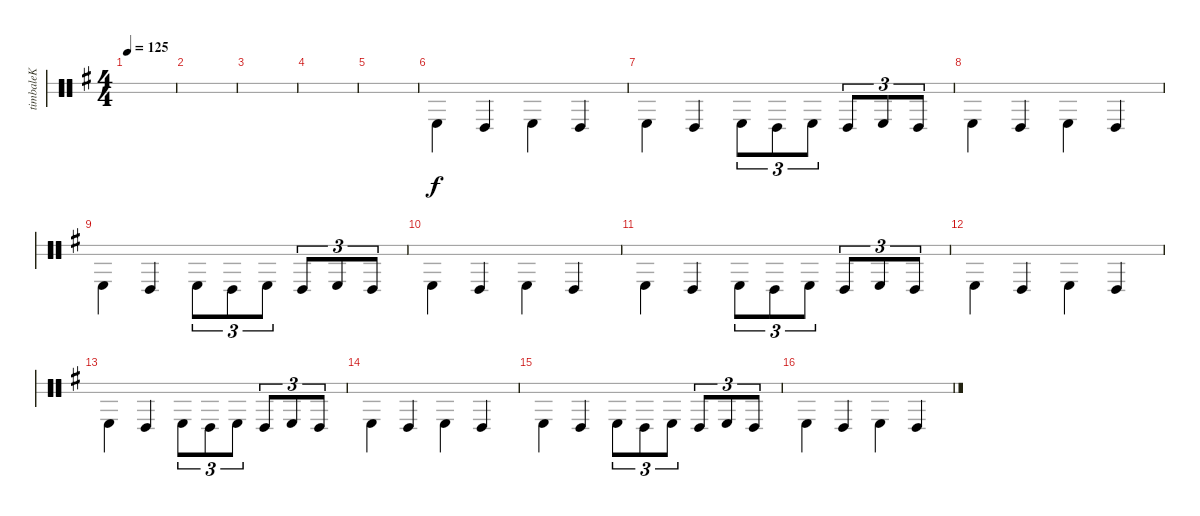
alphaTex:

\defaultSystemsLayout 4
\bracketExtendMode groupsimilarinstruments
\otherSystemsTrackNameOrientation horizontal
\track ("Timbale" "timbaleK") {instrument percussion}
\staff {score 2}
\articulation defaults
\ts (4 4)
\tempo 125
\clef neutral
\scale
0.474178
\ks g
|
\scale
0.262911 |
|
|
|
\scale
0.262911 "Timbale high (hit)"{acc forcenatural}.4{beam Down} "Timbale low (hit)"{acc forcenatural}.4{beam Up} "Timbale high (hit)"{acc forcenatural}.4{beam Down} "Timbale low (hit)"{acc forcenatural}.4{beam Up} |
\scale
0.333333 "Timbale high (hit)"{acc forcenatural}.4{beam Down} "Timbale low (hit)"{acc forcenatural}.4{beam Up} "Timbale high (hit)"{acc forcenatural}.8{tu (3 2) beam Down} "Timbale low (hit)"{acc forcenatural}.8{tu (3 2) beam Down} "Timbale high (hit)"{acc forcenatural}.8{tu (3 2) beam Down} "Timbale low (hit)"{acc forcenatural}.8{tu (3 2) beam Up} "Timbale high (hit)"{acc forcenatural}.8{tu (3 2) beam Up} "Timbale low (hit)"{acc forcenatural}.8{tu (3 2) beam Up} |
\scale
0.333333 "Timbale high (hit)"{acc forcenatural}.4{beam Down} "Timbale low (hit)"{acc forcenatural}.4{beam Up} "Timbale high (hit)"{acc forcenatural}.4{beam Down} "Timbale low (hit)"{acc forcenatural}.4{beam Up} |
"Timbale high (hit)"{acc forcenatural}.4{beam Down} "Timbale low (hit)"{acc forcenatural}.4{beam Up} "Timbale high (hit)"{acc forcenatural}.8{tu (3 2) beam Down} "Timbale low (hit)"{acc forcenatural}.8{tu (3 2) beam Down} "Timbale high (hit)"{acc forcenatural}.8{tu (3 2) beam Down} "Timbale low (hit)"{acc forcenatural}.8{tu (3 2) beam Up} "Timbale high (hit)"{acc forcenatural}.8{tu (3 2) beam Up} "Timbale low (hit)"{acc forcenatural}.8{tu (3 2) beam Up} |
\scale
0.333333 "Timbale high (hit)"{acc forcenatural}.4{beam Down} "Timbale low (hit)"{acc forcenatural}.4{beam Up} "Timbale high (hit)"{acc forcenatural}.4{beam Down} "Timbale low (hit)"{acc forcenatural}.4{beam Up} |
\scale
0.333333 "Timbale high (hit)"{acc forcenatural}.4{beam Down} "Timbale low (hit)"{acc forcenatural}.4{beam Up} "Timbale high (hit)"{acc forcenatural}.8{tu (3 2) beam Down} "Timbale low (hit)"{acc forcenatural}.8{tu (3 2) beam Down} "Timbale high (hit)"{acc forcenatural}.8{tu (3 2) beam Down} "Timbale low (hit)"{acc forcenatural}.8{tu (3 2) beam Up} "Timbale high (hit)"{acc forcenatural}.8{tu (3 2) beam Up} "Timbale low (hit)"{acc forcenatural}.8{tu (3 2) beam Up} |
\scale
0.333333 "Timbale high (hit)"{acc forcenatural}.4{beam Down} "Timbale low (hit)"{acc forcenatural}.4{beam Up} "Timbale high (hit)"{acc forcenatural}.4{beam Down} "Timbale low (hit)"{acc forcenatural}.4{beam Up} |
\scale
0.333333 "Timbale high (hit)"{acc forcenatural}.4{beam Down} "Timbale low (hit)"{acc forcenatural}.4{beam Up} "Timbale high (hit)"{acc forcenatural}.8{tu (3 2) beam Down} "Timbale low (hit)"{acc forcenatural}.8{tu (3 2) beam Down} "Timbale high (hit)"{acc forcenatural}.8{tu (3 2) beam Down} "Timbale low (hit)"{acc forcenatural}.8{tu (3 2) beam Up} "Timbale high (hit)"{acc forcenatural}.8{tu (3 2) beam Up} "Timbale low (hit)"{acc forcenatural}.8{tu (3 2) beam Up} |
\scale
0.333333 "Timbale high (hit)"{acc forcenatural}.4{beam Down} "Timbale low (hit)"{acc forcenatural}.4{beam Up} "Timbale high (hit)"{acc forcenatural}.4{beam Down} "Timbale low (hit)"{acc forcenatural}.4{beam Up} |
\scale
0.333333 "Timbale high (hit)"{acc forcenatural}.4{beam Down} "Timbale low (hit)"{acc forcenatural}.4{beam Up} "Timbale high (hit)"{acc forcenatural}.8{tu (3 2) beam Down} "Timbale low (hit)"{acc forcenatural}.8{tu (3 2) beam Down} "Timbale high (hit)"{acc forcenatural}.8{tu (3 2) beam Down} "Timbale low (hit)"{acc forcenatural}.8{tu (3 2) beam Up} "Timbale high (hit)"{acc forcenatural}.8{tu (3 2) beam Up} "Timbale low (hit)"{acc forcenatural}.8{tu (3 2) beam Up} |
\scale
0.333333 "Timbale high (hit)"{acc forcenatural}.4{beam Down} "Timbale low (hit)"{acc forcenatural}.4{beam Up} "Timbale high (hit)"{acc forcenatural}.4{beam Down} "Timbale low (hit)"{acc forcenatural}.4{beam Up}
